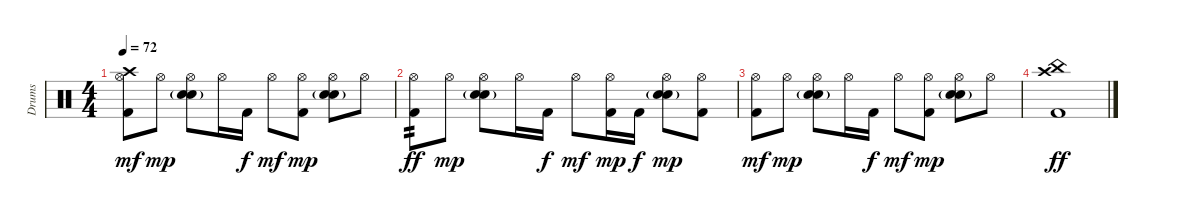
\track ("Drums" "Drums") {instrument percussion}
\staff {score}
\articulation defaults
\ts (4 4)
\tempo 72
\clef neutral
\ks c
("Hi-Hat (open)" "Crash high (hit)" "Kick (hit) 2").8{dy mf} "Hi-Hat (open)".8{dy mp} ("Hi-Hat (open)" "Snare (hit) 2" "Electric Snare (hit)"{g}).8 "Hi-Hat (open)".16 "Kick (hit) 2".16{dy f} "Hi-Hat (open)".8{dy mf} ("Hi-Hat (open)" "Kick (hit) 2").8{dy mp} ("Hi-Hat (open)" "Snare (hit) 2" "Electric Snare (hit)"{g}).8 "Hi-Hat (open)".8 |
("Hi-Hat (open)" "Kick (hit) 2").8{tp 2 dy ff} "Hi-Hat (open)".8{dy mp} ("Hi-Hat (open)" "Snare (hit) 2" "Electric Snare (hit)"{g}).8 "Hi-Hat (open)".16 "Kick (hit) 2".16{dy f} "Hi-Hat (open)".8{dy mf} ("Hi-Hat (open)" "Kick (hit) 2").16{dy mp} "Kick (hit) 2".16{dy f} ("Hi-Hat (open)" "Snare (hit) 2" "Electric Snare (hit)"{g}).8{dy mp} ("Hi-Hat (open)" "Kick (hit) 2").8 |
("Hi-Hat (open)" "Kick (hit) 2").8{dy mf} "Hi-Hat (open)".8{dy mp} ("Hi-Hat (open)" "Snare (hit) 2" "Electric Snare (hit)"{g}).8 "Hi-Hat (open)".16 "Kick (hit) 2".16{dy f} "Hi-Hat (open)".8{dy mf} ("Hi-Hat (open)" "Kick (hit) 2").8{dy mp} ("Hi-Hat (open)" "Snare (hit) 2" "Electric Snare (hit)"{g}).8 "Hi-Hat (open)".8 |
("Crash high (hit)" "China (hit)" "Kick (hit) 2").1{dy ff}
